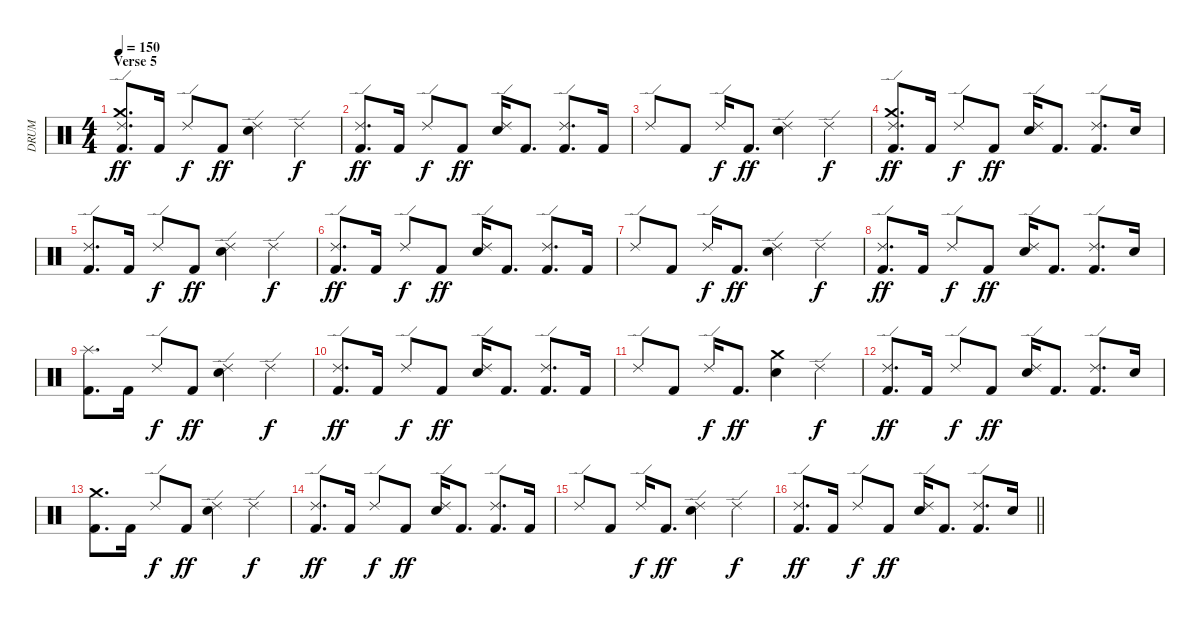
\track ("DRUM" "DRUM") {instrument percussion}
\staff {score}
\articulation defaults
\ts (4 4)
\section ("" "Verse 5")
\tempo 150
\clef neutral
\ks c
("Ride (edge) 2" "Crash medium (hit)" "Kick (hit) 2").8{d dy ff} "Kick (hit) 2".16 "Ride (edge) 2".8{dy f} "Kick (hit) 2".8{dy ff} ("Ride (edge) 2" "Snare (hit) 2").4 "Ride (edge) 2".4{dy f} |
("Ride (edge) 2" "Kick (hit) 2").8{d dy ff} "Kick (hit) 2".16 "Ride (edge) 2".8{dy f} "Kick (hit) 2".8{dy ff} ("Ride (edge) 2" "Snare (hit) 2").16 "Kick (hit) 2".8{d} ("Ride (edge) 2" "Kick (hit) 2").8{d} "Kick (hit) 2".16 |
"Ride (edge) 2".8 "Kick (hit) 2".8 "Ride (edge) 2".16{dy f} "Kick (hit) 2".8{d dy ff} ("Ride (edge) 2" "Snare (hit) 2").4 "Ride (edge) 2".4{dy f} |
("Ride (edge) 2" "Crash medium (hit)" "Kick (hit) 2").8{d dy ff} "Kick (hit) 2".16 "Ride (edge) 2".8{dy f} "Kick (hit) 2".8{dy ff} ("Ride (edge) 2" "Snare (hit) 2").16 "Kick (hit) 2".8{d} ("Ride (edge) 2" "Kick (hit) 2").8{d} "Snare (hit) 2".16 |
("Ride (edge) 2" "Kick (hit) 2").8{d} "Kick (hit) 2".16 "Ride (edge) 2".8{dy f} "Kick (hit) 2".8{dy ff} ("Ride (edge) 2" "Snare (hit) 2").4 "Ride (edge) 2".4{dy f} |
("Ride (edge) 2" "Kick (hit) 2").8{d dy ff} "Kick (hit) 2".16 "Ride (edge) 2".8{dy f} "Kick (hit) 2".8{dy ff} ("Ride (edge) 2" "Snare (hit) 2").16 "Kick (hit) 2".8{d} ("Ride (edge) 2" "Kick (hit) 2").8{d} "Kick (hit) 2".16 |
"Ride (edge) 2".8 "Kick (hit) 2".8 "Ride (edge) 2".16{dy f} "Kick (hit) 2".8{d dy ff} ("Ride (edge) 2" "Snare (hit) 2").4 "Ride (edge) 2".4{dy f} |
("Ride (edge) 2" "Kick (hit) 2").8{d dy ff} "Kick (hit) 2".16 "Ride (edge) 2".8{dy f} "Kick (hit) 2".8{dy ff} ("Ride (edge) 2" "Snare (hit) 2").16 "Kick (hit) 2".8{d} ("Ride (edge) 2" "Kick (hit) 2").8{d} "Snare (hit) 2".16 |
("Splash (hit)" "Kick (hit) 2").8{d} "Kick (hit) 2".16 "Ride (edge) 2".8{dy f} "Kick (hit) 2".8{dy ff} ("Ride (edge) 2" "Snare (hit) 2").4 "Ride (edge) 2".4{dy f} |
("Ride (edge) 2" "Kick (hit) 2").8{d dy ff} "Kick (hit) 2".16 "Ride (edge) 2".8{dy f} "Kick (hit) 2".8{dy ff} ("Ride (edge) 2" "Snare (hit) 2").16 "Kick (hit) 2".8{d} ("Ride (edge) 2" "Kick (hit) 2").8{d} "Kick (hit) 2".16 |
"Ride (edge) 2".8 "Kick (hit) 2".8 "Ride (edge) 2".16{dy f} "Kick (hit) 2".8{d dy ff} ("Crash medium (hit)" "Snare (hit) 2").4 "Ride (edge) 2".4{dy f} |
("Ride (edge) 2" "Kick (hit) 2").8{d dy ff} "Kick (hit) 2".16 "Ride (edge) 2".8{dy f} "Kick (hit) 2".8{dy ff} ("Ride (edge) 2" "Snare (hit) 2").16 "Kick (hit) 2".8{d} ("Ride (edge) 2" "Kick (hit) 2").8{d} "Snare (hit) 2".16 |
("Crash medium (hit)" "Kick (hit) 2").8{d} "Kick (hit) 2".16 "Ride (edge) 2".8{dy f} "Kick (hit) 2".8{dy ff} ("Ride (edge) 2" "Snare (hit) 2").4 "Ride (edge) 2".4{dy f} |
("Ride (edge) 2" "Kick (hit) 2").8{d dy ff} "Kick (hit) 2".16 "Ride (edge) 2".8{dy f} "Kick (hit) 2".8{dy ff} ("Ride (edge) 2" "Snare (hit) 2").16 "Kick (hit) 2".8{d} ("Ride (edge) 2" "Kick (hit) 2").8{d} "Kick (hit) 2".16 |
"Ride (edge) 2".8 "Kick (hit) 2".8 "Ride (edge) 2".16{dy f} "Kick (hit) 2".8{d dy ff} ("Ride (edge) 2" "Snare (hit) 2").4 "Ride (edge) 2".4{dy f} |
\barLineRight lightlight
("Ride (edge) 2" "Kick (hit) 2").8{d dy ff} "Kick (hit) 2".16 "Ride (edge) 2".8{dy f} "Kick (hit) 2".8{dy ff} ("Ride (edge) 2" "Snare (hit) 2").16 "Kick (hit) 2".8{d} ("Ride (edge) 2" "Kick (hit) 2").8{d} "Snare (hit) 2".16
